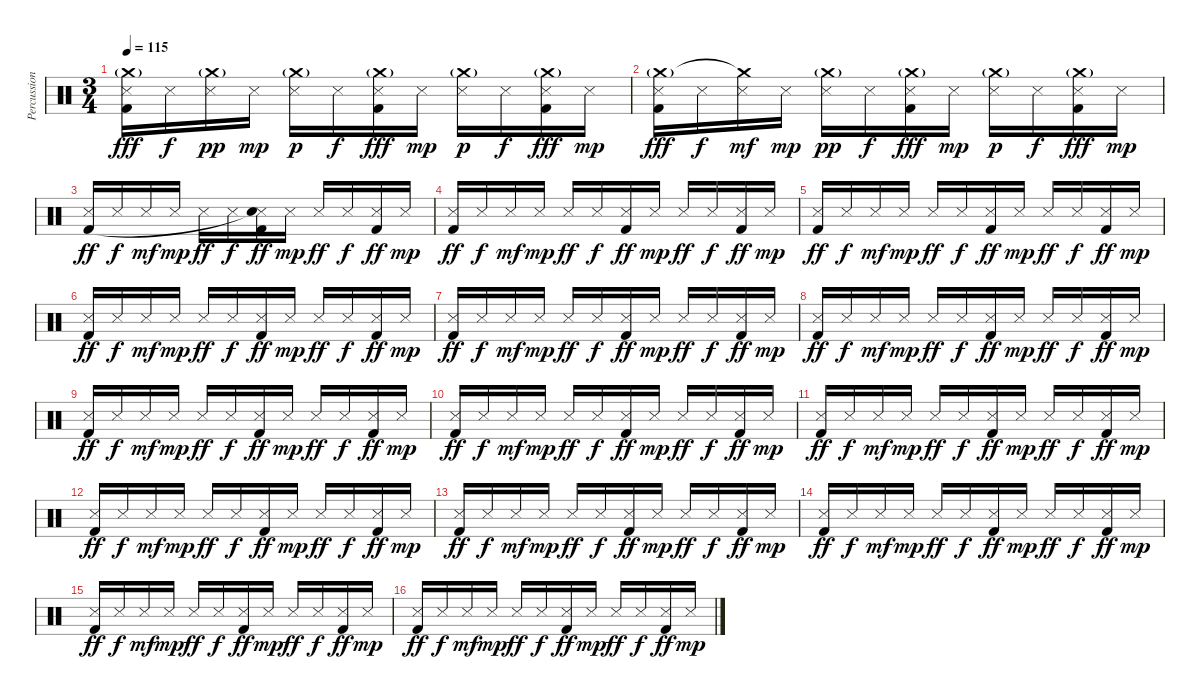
\track ("Percussion 1" "Percussion") {instrument percussion}
\staff {score}
\articulation defaults
\ts (3 4)
\tempo 115
\clef neutral
\ks c
("Snare (side stick) 3" "Crash medium (hit)"{g} "Kick (hit) 2").16{dy fff} "Snare (side stick) 3".16{dy f} ("Snare (side stick) 3" "Crash medium (hit)"{g}).16{dy pp} "Snare (side stick) 3".16{dy mp} ("Snare (side stick) 3" "Crash medium (hit)"{g}).16{dy p} "Snare (side stick) 3".16{dy f} ("Snare (side stick) 3" "Crash medium (hit)"{g} "Kick (hit) 2").16{dy fff} "Snare (side stick) 3".16{dy mp} ("Snare (side stick) 3" "Crash medium (hit)"{g}).16{dy p} "Snare (side stick) 3".16{dy f} ("Snare (side stick) 3" "Crash medium (hit)"{g} "Kick (hit) 2").16{dy fff} "Snare (side stick) 3".16{dy mp} |
("Snare (side stick) 3" "Crash medium (hit)"{g} "Kick (hit) 2").16{dy fff} "Snare (side stick) 3".16{dy f} ("Snare (side stick) 3" "Crash medium (hit)"{t}).16{dy mf} "Snare (side stick) 3".16{dy mp} ("Snare (side stick) 3" "Crash medium (hit)"{g}).16{dy pp} "Snare (side stick) 3".16{dy f} ("Snare (side stick) 3" "Crash medium (hit)"{g} "Kick (hit) 2").16{dy fff} "Snare (side stick) 3".16{dy mp} ("Snare (side stick) 3" "Crash medium (hit)"{g}).16{dy p} "Snare (side stick) 3".16{dy f} ("Snare (side stick) 3" "Crash medium (hit)"{g} "Kick (hit) 2").16{dy fff} "Snare (side stick) 3".16{dy mp} |
("Snare (side stick) 3" "Kick (hit) 2").16{dy ff} "Snare (side stick) 3".16{dy f} "Snare (side stick) 3".16{dy mf} "Snare (side stick) 3".16{dy mp} "Snare (side stick) 3".16{dy ff} "Snare (side stick) 3".16{dy f} ("Snare (side stick) 3" "Snare (hit)"{t} "Kick (hit) 2").16{dy ff} "Snare (side stick) 3".16{dy mp} "Snare (side stick) 3".16{dy ff} "Snare (side stick) 3".16{dy f} ("Snare (side stick) 3" "Kick (hit) 2").16{dy ff} "Snare (side stick) 3".16{dy mp} |
("Snare (side stick) 3" "Kick (hit) 2").16{dy ff} "Snare (side stick) 3".16{dy f} "Snare (side stick) 3".16{dy mf} "Snare (side stick) 3".16{dy mp} "Snare (side stick) 3".16{dy ff} "Snare (side stick) 3".16{dy f} ("Snare (side stick) 3" "Kick (hit) 2").16{dy ff} "Snare (side stick) 3".16{dy mp} "Snare (side stick) 3".16{dy ff} "Snare (side stick) 3".16{dy f} ("Snare (side stick) 3" "Kick (hit) 2").16{dy ff} "Snare (side stick) 3".16{dy mp} |
("Snare (side stick) 3" "Kick (hit) 2").16{dy ff} "Snare (side stick) 3".16{dy f} "Snare (side stick) 3".16{dy mf} "Snare (side stick) 3".16{dy mp} "Snare (side stick) 3".16{dy ff} "Snare (side stick) 3".16{dy f} ("Snare (side stick) 3" "Kick (hit) 2").16{dy ff} "Snare (side stick) 3".16{dy mp} "Snare (side stick) 3".16{dy ff} "Snare (side stick) 3".16{dy f} ("Snare (side stick) 3" "Kick (hit) 2").16{dy ff} "Snare (side stick) 3".16{dy mp} |
("Snare (side stick) 3" "Kick (hit) 2").16{dy ff} "Snare (side stick) 3".16{dy f} "Snare (side stick) 3".16{dy mf} "Snare (side stick) 3".16{dy mp} "Snare (side stick) 3".16{dy ff} "Snare (side stick) 3".16{dy f} ("Snare (side stick) 3" "Kick (hit) 2").16{dy ff} "Snare (side stick) 3".16{dy mp} "Snare (side stick) 3".16{dy ff} "Snare (side stick) 3".16{dy f} ("Snare (side stick) 3" "Kick (hit) 2").16{dy ff} "Snare (side stick) 3".16{dy mp} |
("Snare (side stick) 3" "Kick (hit) 2").16{dy ff} "Snare (side stick) 3".16{dy f} "Snare (side stick) 3".16{dy mf} "Snare (side stick) 3".16{dy mp} "Snare (side stick) 3".16{dy ff} "Snare (side stick) 3".16{dy f} ("Snare (side stick) 3" "Kick (hit) 2").16{dy ff} "Snare (side stick) 3".16{dy mp} "Snare (side stick) 3".16{dy ff} "Snare (side stick) 3".16{dy f} ("Snare (side stick) 3" "Kick (hit) 2").16{dy ff} "Snare (side stick) 3".16{dy mp} |
("Snare (side stick) 3" "Kick (hit) 2").16{dy ff} "Snare (side stick) 3".16{dy f} "Snare (side stick) 3".16{dy mf} "Snare (side stick) 3".16{dy mp} "Snare (side stick) 3".16{dy ff} "Snare (side stick) 3".16{dy f} ("Snare (side stick) 3" "Kick (hit) 2").16{dy ff} "Snare (side stick) 3".16{dy mp} "Snare (side stick) 3".16{dy ff} "Snare (side stick) 3".16{dy f} ("Snare (side stick) 3" "Kick (hit) 2").16{dy ff} "Snare (side stick) 3".16{dy mp} |
("Snare (side stick) 3" "Kick (hit) 2").16{dy ff} "Snare (side stick) 3".16{dy f} "Snare (side stick) 3".16{dy mf} "Snare (side stick) 3".16{dy mp} "Snare (side stick) 3".16{dy ff} "Snare (side stick) 3".16{dy f} ("Snare (side stick) 3" "Kick (hit) 2").16{dy ff} "Snare (side stick) 3".16{dy mp} "Snare (side stick) 3".16{dy ff} "Snare (side stick) 3".16{dy f} ("Snare (side stick) 3" "Kick (hit) 2").16{dy ff} "Snare (side stick) 3".16{dy mp} |
("Snare (side stick) 3" "Kick (hit) 2").16{dy ff} "Snare (side stick) 3".16{dy f} "Snare (side stick) 3".16{dy mf} "Snare (side stick) 3".16{dy mp} "Snare (side stick) 3".16{dy ff} "Snare (side stick) 3".16{dy f} ("Snare (side stick) 3" "Kick (hit) 2").16{dy ff} "Snare (side stick) 3".16{dy mp} "Snare (side stick) 3".16{dy ff} "Snare (side stick) 3".16{dy f} ("Snare (side stick) 3" "Kick (hit) 2").16{dy ff} "Snare (side stick) 3".16{dy mp} |
("Snare (side stick) 3" "Kick (hit) 2").16{dy ff} "Snare (side stick) 3".16{dy f} "Snare (side stick) 3".16{dy mf} "Snare (side stick) 3".16{dy mp} "Snare (side stick) 3".16{dy ff} "Snare (side stick) 3".16{dy f} ("Snare (side stick) 3" "Kick (hit) 2").16{dy ff} "Snare (side stick) 3".16{dy mp} "Snare (side stick) 3".16{dy ff} "Snare (side stick) 3".16{dy f} ("Snare (side stick) 3" "Kick (hit) 2").16{dy ff} "Snare (side stick) 3".16{dy mp} |
("Snare (side stick) 3" "Kick (hit) 2").16{dy ff} "Snare (side stick) 3".16{dy f} "Snare (side stick) 3".16{dy mf} "Snare (side stick) 3".16{dy mp} "Snare (side stick) 3".16{dy ff} "Snare (side stick) 3".16{dy f} ("Snare (side stick) 3" "Kick (hit) 2").16{dy ff} "Snare (side stick) 3".16{dy mp} "Snare (side stick) 3".16{dy ff} "Snare (side stick) 3".16{dy f} ("Snare (side stick) 3" "Kick (hit) 2").16{dy ff} "Snare (side stick) 3".16{dy mp} |
("Snare (side stick) 3" "Kick (hit) 2").16{dy ff} "Snare (side stick) 3".16{dy f} "Snare (side stick) 3".16{dy mf} "Snare (side stick) 3".16{dy mp} "Snare (side stick) 3".16{dy ff} "Snare (side stick) 3".16{dy f} ("Snare (side stick) 3" "Kick (hit) 2").16{dy ff} "Snare (side stick) 3".16{dy mp} "Snare (side stick) 3".16{dy ff} "Snare (side stick) 3".16{dy f} ("Snare (side stick) 3" "Kick (hit) 2").16{dy ff} "Snare (side stick) 3".16{dy mp} |
("Snare (side stick) 3" "Kick (hit) 2").16{dy ff} "Snare (side stick) 3".16{dy f} "Snare (side stick) 3".16{dy mf} "Snare (side stick) 3".16{dy mp} "Snare (side stick) 3".16{dy ff} "Snare (side stick) 3".16{dy f} ("Snare (side stick) 3" "Kick (hit) 2").16{dy ff} "Snare (side stick) 3".16{dy mp} "Snare (side stick) 3".16{dy ff} "Snare (side stick) 3".16{dy f} ("Snare (side stick) 3" "Kick (hit) 2").16{dy ff} "Snare (side stick) 3".16{dy mp} |
("Snare (side stick) 3" "Kick (hit) 2").16{dy ff} "Snare (side stick) 3".16{dy f} "Snare (side stick) 3".16{dy mf} "Snare (side stick) 3".16{dy mp} "Snare (side stick) 3".16{dy ff} "Snare (side stick) 3".16{dy f} ("Snare (side stick) 3" "Kick (hit) 2").16{dy ff} "Snare (side stick) 3".16{dy mp} "Snare (side stick) 3".16{dy ff} "Snare (side stick) 3".16{dy f} ("Snare (side stick) 3" "Kick (hit) 2").16{dy ff} "Snare (side stick) 3".16{dy mp} |
("Snare (side stick) 3" "Kick (hit) 2").16{dy ff} "Snare (side stick) 3".16{dy f} "Snare (side stick) 3".16{dy mf} "Snare (side stick) 3".16{dy mp} "Snare (side stick) 3".16{dy ff} "Snare (side stick) 3".16{dy f} ("Snare (side stick) 3" "Kick (hit) 2").16{dy ff} "Snare (side stick) 3".16{dy mp} "Snare (side stick) 3".16{dy ff} "Snare (side stick) 3".16{dy f} ("Snare (side stick) 3" "Kick (hit) 2").16{dy ff} "Snare (side stick) 3".16{dy mp}
